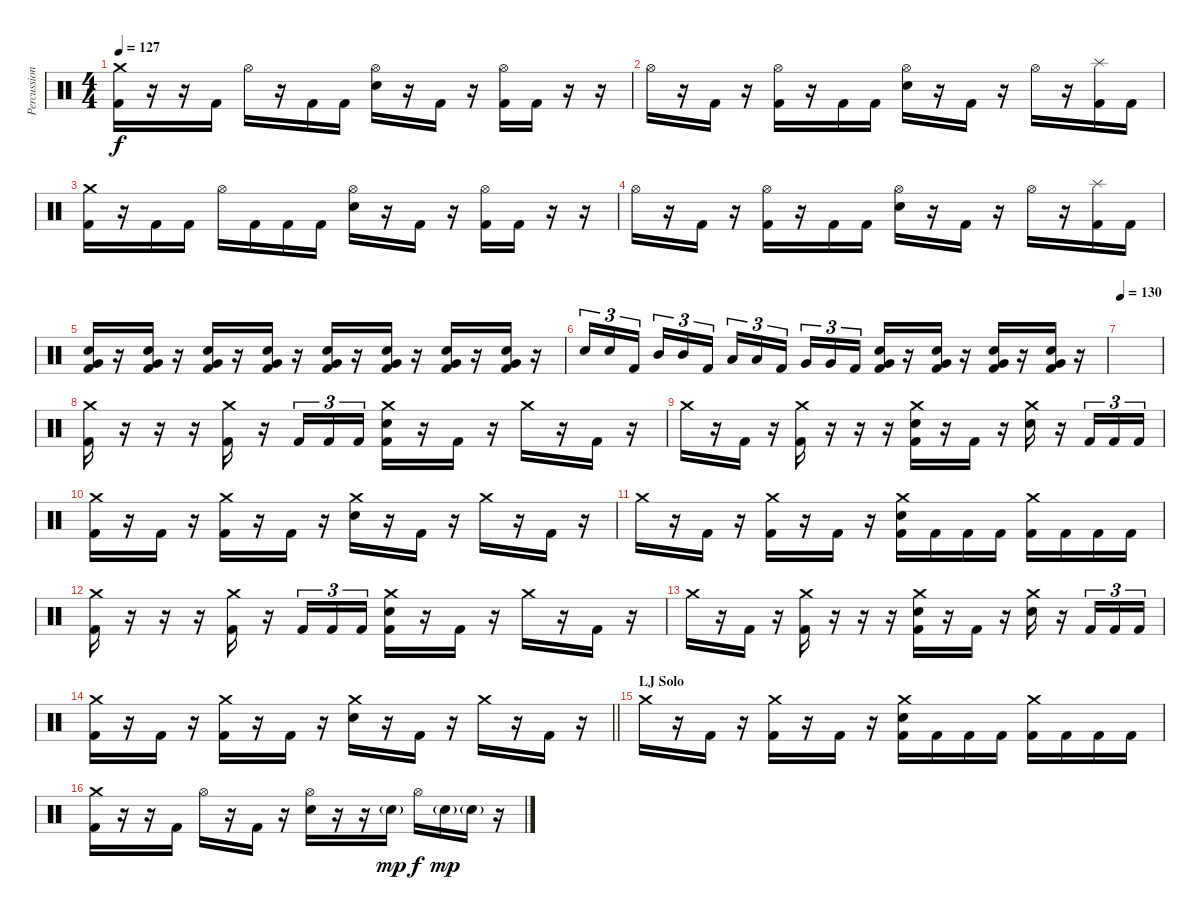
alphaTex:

\track ("Percussion" "Percussion") {instrument percussion}
\staff {score}
\articulation defaults
\ts (4 4)
\tempo 127
\clef neutral
\ks c
("Crash medium (hit)" "Kick (hit) 2").16{dy f} r.16 r.16 "Kick (hit) 2".16 "Hi-Hat (open)".16 r.16 "Kick (hit) 2".16 "Kick (hit) 2".16 ("Hi-Hat (open)" "Snare (hit) 2").16 r.16 "Kick (hit) 2".16 r.16 ("Hi-Hat (open)" "Kick (hit) 2").16 "Kick (hit) 2".16 r.16 r.16 |
"Hi-Hat (open)".16 r.16 "Kick (hit) 2".16 r.16 ("Hi-Hat (open)" "Kick (hit) 2").16 r.16 "Kick (hit) 2".16 "Kick (hit) 2".16 ("Hi-Hat (open)" "Snare (hit) 2").16 r.16 "Kick (hit) 2".16 r.16 "Hi-Hat (open)".16 r.16 ("Splash (hit)" "Kick (hit) 2").16 "Kick (hit) 2".16 |
("Crash medium (hit)" "Kick (hit) 2").16 r.16 "Kick (hit) 2".16 "Kick (hit) 2".16 "Hi-Hat (open)".16 "Kick (hit) 2".16 "Kick (hit) 2".16 "Kick (hit) 2".16 ("Hi-Hat (open)" "Snare (hit) 2").16 r.16 "Kick (hit) 2".16 r.16 ("Hi-Hat (open)" "Kick (hit) 2").16 "Kick (hit) 2".16 r.16 r.16 |
"Hi-Hat (open)".16 r.16 "Kick (hit) 2".16 r.16 ("Hi-Hat (open)" "Kick (hit) 2").16 r.16 "Kick (hit) 2".16 "Kick (hit) 2".16 ("Hi-Hat (open)" "Snare (hit) 2").16 r.16 "Kick (hit) 2".16 r.16 "Hi-Hat (open)".16 r.16 ("Splash (hit)" "Kick (hit) 2").16 "Kick (hit) 2".16 |
("Snare (hit) 2" "Very Low Tom (hit)" "Kick (hit) 2").16 r.16 ("Snare (hit) 2" "Very Low Tom (hit)" "Kick (hit) 2").16 r.16 ("Snare (hit) 2" "Very Low Tom (hit)" "Kick (hit) 2").16 r.16 ("Snare (hit) 2" "Very Low Tom (hit)" "Kick (hit) 2").16 r.16 ("Snare (hit) 2" "Very Low Tom (hit)" "Kick (hit) 2").16 r.16 ("Snare (hit) 2" "Very Low Tom (hit)" "Kick (hit) 2").16 r.16 ("Snare (hit) 2" "Very Low Tom (hit)" "Kick (hit) 2").16 r.16 ("Snare (hit) 2" "Very Low Tom (hit)" "Kick (hit) 2").16 r.16 |
"Snare (hit) 2".16{tu (3 2)} "Snare (hit) 2".16{tu (3 2)} "Kick (hit) 2".16{tu (3 2) beam splitsecondary} "Mid Tom (hit)".16{tu (3 2)} "Mid Tom (hit)".16{tu (3 2)} "Kick (hit) 2".16{tu (3 2)} "Low Tom (hit)".16{tu (3 2)} "Low Tom (hit)".16{tu (3 2)} "Kick (hit) 2".16{tu (3 2) beam splitsecondary} "Very Low Tom (hit)".16{tu (3 2)} "Very Low Tom (hit)".16{tu (3 2)} "Kick (hit) 2".16{tu (3 2)} ("Snare (hit) 2" "Very Low Tom (hit)" "Kick (hit) 2").16 r.16 ("Snare (hit) 2" "Very Low Tom (hit)" "Kick (hit) 2").16 r.16 ("Snare (hit) 2" "Very Low Tom (hit)" "Kick (hit) 2").16 r.16 ("Snare (hit) 2" "Very Low Tom (hit)" "Kick (hit) 2").16 r.16 |
\tempo 130
|
("Crash medium (hit)" "Kick (hit) 2").16 r.16 r.16 r.16 ("Crash medium (hit)" "Kick (hit) 2").16 r.16 "Kick (hit) 2".16{tu (3 2)} "Kick (hit) 2".16{tu (3 2)} "Kick (hit) 2".16{tu (3 2)} ("Crash medium (hit)" "Snare (hit) 2" "Kick (hit) 2").16 r.16 "Kick (hit) 2".16 r.16 "Crash medium (hit)".16 r.16 "Kick (hit) 2".16 r.16 |
"Crash medium (hit)".16 r.16 "Kick (hit) 2".16 r.16 ("Crash medium (hit)" "Kick (hit) 2").16 r.16 r.16 r.16 ("Crash medium (hit)" "Snare (hit) 2" "Kick (hit) 2").16 r.16 "Kick (hit) 2".16 r.16 ("Crash medium (hit)" "Snare (hit) 2").16 r.16 "Kick (hit) 2".16{tu (3 2)} "Kick (hit) 2".16{tu (3 2)} "Kick (hit) 2".16{tu (3 2)} |
("Crash medium (hit)" "Kick (hit) 2").16 r.16 "Kick (hit) 2".16 r.16 ("Crash medium (hit)" "Kick (hit) 2").16 r.16 "Kick (hit) 2".16 r.16 ("Crash medium (hit)" "Snare (hit) 2").16 r.16 "Kick (hit) 2".16 r.16 "Crash medium (hit)".16 r.16 "Kick (hit) 2".16 r.16 |
"Crash medium (hit)".16 r.16 "Kick (hit) 2".16 r.16 ("Crash medium (hit)" "Kick (hit) 2").16 r.16 "Kick (hit) 2".16 r.16 ("Crash medium (hit)" "Snare (hit) 2" "Kick (hit) 2").16 "Kick (hit) 2".16 "Kick (hit) 2".16 "Kick (hit) 2".16 ("Crash medium (hit)" "Kick (hit) 2").16 "Kick (hit) 2".16 "Kick (hit) 2".16 "Kick (hit) 2".16 |
("Crash medium (hit)" "Kick (hit) 2").16 r.16 r.16 r.16 ("Crash medium (hit)" "Kick (hit) 2").16 r.16 "Kick (hit) 2".16{tu (3 2)} "Kick (hit) 2".16{tu (3 2)} "Kick (hit) 2".16{tu (3 2)} ("Crash medium (hit)" "Snare (hit) 2" "Kick (hit) 2").16 r.16 "Kick (hit) 2".16 r.16 "Crash medium (hit)".16 r.16 "Kick (hit) 2".16 r.16 |
"Crash medium (hit)".16 r.16 "Kick (hit) 2".16 r.16 ("Crash medium (hit)" "Kick (hit) 2").16 r.16 r.16 r.16 ("Crash medium (hit)" "Snare (hit) 2" "Kick (hit) 2").16 r.16 "Kick (hit) 2".16 r.16 ("Crash medium (hit)" "Snare (hit) 2").16 r.16 "Kick (hit) 2".16{tu (3 2)} "Kick (hit) 2".16{tu (3 2)} "Kick (hit) 2".16{tu (3 2)} |
\barLineRight lightlight
("Crash medium (hit)" "Kick (hit) 2").16 r.16 "Kick (hit) 2".16 r.16 ("Crash medium (hit)" "Kick (hit) 2").16 r.16 "Kick (hit) 2".16 r.16 ("Crash medium (hit)" "Snare (hit) 2").16 r.16 "Kick (hit) 2".16 r.16 "Crash medium (hit)".16 r.16 "Kick (hit) 2".16 r.16 |
\section ("" "LJ Solo")
"Crash medium (hit)".16 r.16 "Kick (hit) 2".16 r.16 ("Crash medium (hit)" "Kick (hit) 2").16 r.16 "Kick (hit) 2".16 r.16 ("Crash medium (hit)" "Snare (hit) 2" "Kick (hit) 2").16 "Kick (hit) 2".16 "Kick (hit) 2".16 "Kick (hit) 2".16 ("Crash medium (hit)" "Kick (hit) 2").16 "Kick (hit) 2".16 "Kick (hit) 2".16 "Kick (hit) 2".16 |
("Crash medium (hit)" "Kick (hit) 2").16 r.16 r.16 "Kick (hit) 2".16 "Hi-Hat (open)".16 r.16 "Kick (hit) 2".16 r.16 ("Hi-Hat (open)" "Snare (hit) 2").16 r.16 r.16 "Snare (hit) 2"{g}.16{dy mp} "Hi-Hat (open)".16{dy f} "Snare (hit) 2"{g}.16{dy mp} "Snare (hit) 2"{g}.16 r.16
